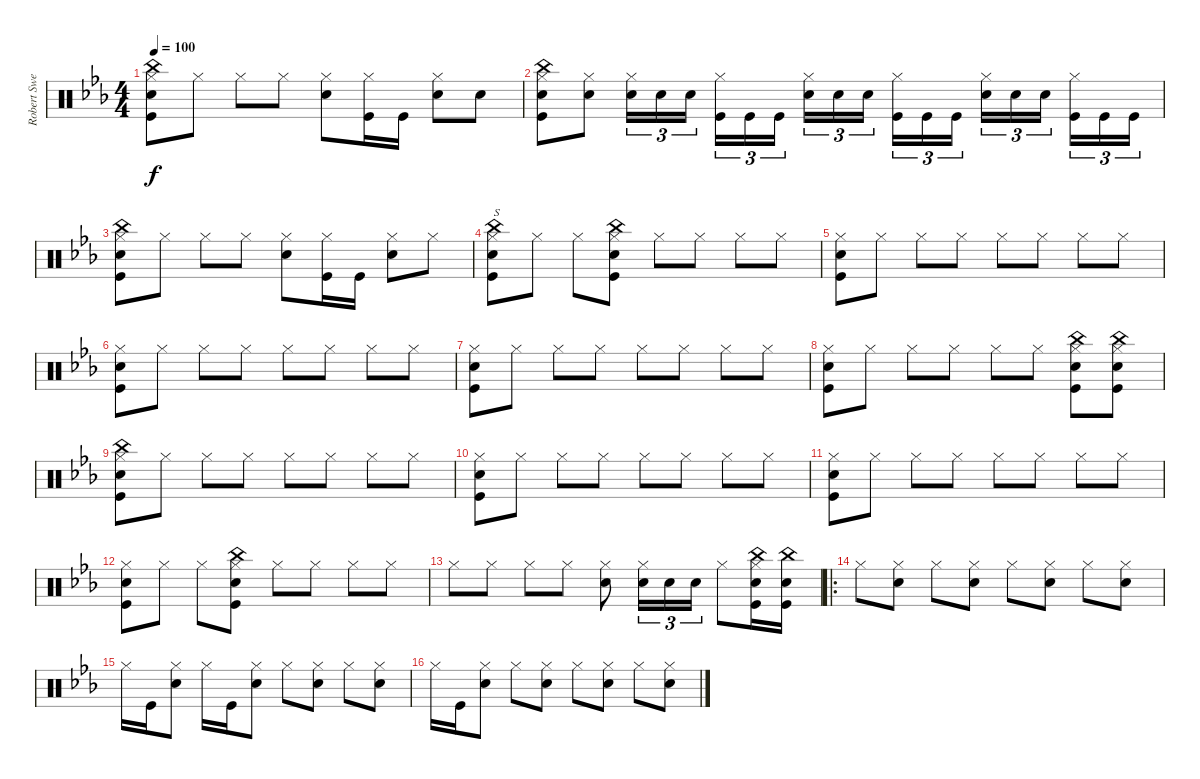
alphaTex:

\track ("Robert Sweet" "Robert Swe") {instrument percussion}
\staff {score}
\articulation defaults
\ts (4 4)
\tempo 100
\clef neutral
\ks cminor
("Hi-Hat (closed)" "Snare (hit) 2" "Kick (hit)" "China (hit)").8{dy f} "Hi-Hat (closed)".8 "Hi-Hat (closed)".8 "Hi-Hat (closed)".8 ("Hi-Hat (closed)" "Snare (hit) 2").8 ("Hi-Hat (closed)" "Kick (hit)").16 "Kick (hit)".16 ("Hi-Hat (closed)" "Snare (hit) 2").8 "Snare (hit) 2".8 |
("Hi-Hat (closed)" "Snare (hit) 2" "Kick (hit)" "China (hit)").8 ("Hi-Hat (closed)" "Snare (hit) 2").8 ("Hi-Hat (closed)" "Snare (hit) 2").16{tu (3 2)} "Snare (hit) 2".16{tu (3 2)} "Snare (hit) 2".16{tu (3 2)} ("Hi-Hat (closed)" "Kick (hit)").16{tu (3 2)} "Kick (hit)".16{tu (3 2)} "Kick (hit)".16{tu (3 2)} ("Hi-Hat (closed)" "Snare (hit) 2").16{tu (3 2)} "Snare (hit) 2".16{tu (3 2)} "Snare (hit) 2".16{tu (3 2)} ("Hi-Hat (closed)" "Kick (hit)").16{tu (3 2)} "Kick (hit)".16{tu (3 2)} "Kick (hit)".16{tu (3 2)} ("Hi-Hat (closed)" "Snare (hit) 2").16{tu (3 2)} "Snare (hit) 2".16{tu (3 2)} "Snare (hit) 2".16{tu (3 2)} ("Hi-Hat (closed)" "Kick (hit)").16{tu (3 2)} "Kick (hit)".16{tu (3 2)} "Kick (hit)".16{tu (3 2)} |
("Hi-Hat (closed)" "Snare (hit) 2" "Kick (hit)" "China (hit)").8 "Hi-Hat (closed)".8 "Hi-Hat (closed)".8 "Hi-Hat (closed)".8 ("Hi-Hat (closed)" "Snare (hit) 2").8 ("Hi-Hat (closed)" "Kick (hit)").16 "Kick (hit)".16 ("Hi-Hat (closed)" "Snare (hit) 2").8 "Hi-Hat (closed)".8 |
("Hi-Hat (closed)" "Kick (hit)" "Snare (hit) 2" "China (hit)").8{s} "Hi-Hat (closed)".8 "Hi-Hat (closed)".8 ("Hi-Hat (closed)" "Kick (hit)" "Snare (hit) 2" "China (hit)").8 "Hi-Hat (closed)".8 "Hi-Hat (closed)".8 "Hi-Hat (closed)".8 "Hi-Hat (closed)".8 |
("Hi-Hat (closed)" "Snare (hit) 2" "Kick (hit)").8 "Hi-Hat (closed)".8 "Hi-Hat (closed)".8 "Hi-Hat (closed)".8 "Hi-Hat (closed)".8 "Hi-Hat (closed)".8 "Hi-Hat (closed)".8 "Hi-Hat (closed)".8 |
("Hi-Hat (closed)" "Snare (hit) 2" "Kick (hit)").8 "Hi-Hat (closed)".8 "Hi-Hat (closed)".8 "Hi-Hat (closed)".8 "Hi-Hat (closed)".8 "Hi-Hat (closed)".8 "Hi-Hat (closed)".8 "Hi-Hat (closed)".8 |
("Hi-Hat (closed)" "Snare (hit) 2" "Kick (hit)").8 "Hi-Hat (closed)".8 "Hi-Hat (closed)".8 "Hi-Hat (closed)".8 "Hi-Hat (closed)".8 "Hi-Hat (closed)".8 "Hi-Hat (closed)".8 "Hi-Hat (closed)".8 |
("Hi-Hat (closed)" "Snare (hit) 2" "Kick (hit)").8 "Hi-Hat (closed)".8 "Hi-Hat (closed)".8 "Hi-Hat (closed)".8 "Hi-Hat (closed)".8 "Hi-Hat (closed)".8 ("Hi-Hat (closed)" "China (hit)" "Snare (hit) 2" "Kick (hit)").8 ("Hi-Hat (closed)" "China (hit)" "Snare (hit) 2" "Kick (hit)").8 |
("Hi-Hat (closed)" "China (hit)" "Snare (hit) 2" "Kick (hit)").8 "Hi-Hat (closed)".8 "Hi-Hat (closed)".8 "Hi-Hat (closed)".8 "Hi-Hat (closed)".8 "Hi-Hat (closed)".8 "Hi-Hat (closed)".8 "Hi-Hat (closed)".8 |
("Hi-Hat (closed)" "Snare (hit) 2" "Kick (hit)").8 "Hi-Hat (closed)".8 "Hi-Hat (closed)".8 "Hi-Hat (closed)".8 "Hi-Hat (closed)".8 "Hi-Hat (closed)".8 "Hi-Hat (closed)".8 "Hi-Hat (closed)".8 |
("Hi-Hat (closed)" "Snare (hit) 2" "Kick (hit)").8 "Hi-Hat (closed)".8 "Hi-Hat (closed)".8 "Hi-Hat (closed)".8 "Hi-Hat (closed)".8 "Hi-Hat (closed)".8 "Hi-Hat (closed)".8 "Hi-Hat (closed)".8 |
("Hi-Hat (closed)" "Snare (hit) 2" "Kick (hit)").8 "Hi-Hat (closed)".8 "Hi-Hat (closed)".8 ("Hi-Hat (closed)" "China (hit)" "Snare (hit) 2" "Kick (hit)").8 "Hi-Hat (closed)".8 "Hi-Hat (closed)".8 "Hi-Hat (closed)".8 "Hi-Hat (closed)".8 |
"Hi-Hat (closed)".8 "Hi-Hat (closed)".8 "Hi-Hat (closed)".8 "Hi-Hat (closed)".8 ("Hi-Hat (closed)" "Snare (hit) 2").8 ("Hi-Hat (closed)" "Snare (hit) 2").16{tu (3 2)} "Snare (hit) 2".16{tu (3 2)} "Snare (hit) 2".16{tu (3 2)} "Hi-Hat (closed)".8 ("Hi-Hat (closed)" "Kick (hit)" "Snare (hit) 2" "China (hit)").16 ("Kick (hit)" "Snare (hit) 2" "China (hit)").16 |
\ro "Hi-Hat (closed)".8
("Hi-Hat (closed)" "Snare (hit) 2").8 "Hi-Hat (closed)".8 ("Hi-Hat (closed)" "Snare (hit) 2").8 "Hi-Hat (closed)".8 ("Hi-Hat (closed)" "Snare (hit) 2").8 "Hi-Hat (closed)".8 ("Hi-Hat (closed)" "Snare (hit) 2").8 |
"Hi-Hat (closed)".16 "Kick (hit)".16 ("Hi-Hat (closed)" "Snare (hit) 2").8 "Hi-Hat (closed)".16 "Kick (hit)".16 ("Hi-Hat (closed)" "Snare (hit) 2").8 "Hi-Hat (closed)".8 ("Hi-Hat (closed)" "Snare (hit) 2").8 "Hi-Hat (closed)".8 ("Hi-Hat (closed)" "Snare (hit) 2").8 |
"Hi-Hat (closed)".16 "Kick (hit)".16 ("Hi-Hat (closed)" "Snare (hit) 2").8 "Hi-Hat (closed)".8 ("Hi-Hat (closed)" "Snare (hit) 2").8 "Hi-Hat (closed)".8 ("Hi-Hat (closed)" "Snare (hit) 2").8 "Hi-Hat (closed)".8 ("Hi-Hat (closed)" "Snare (hit) 2").8
